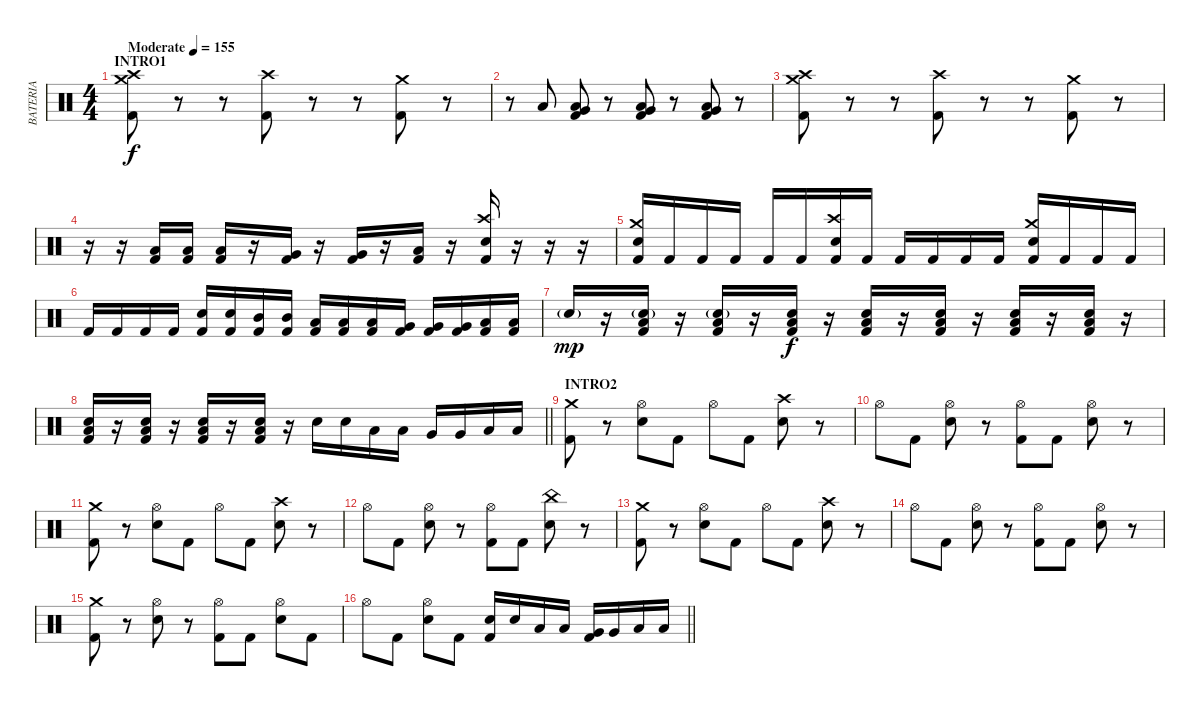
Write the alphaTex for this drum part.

\track ("BATERIA" "BATERIA") {instrument percussion}
\staff {score}
\articulation defaults
\ts (4 4)
\section ("" "INTRO1")
\tempo (155 "Moderate")
\clef neutral
\ks c
("Kick (hit) 2" "Crash medium (hit)" "Crash high (hit)").8{dy f} r.8 r.8 ("Kick (hit) 2" "Crash high (hit)").8 r.8 r.8 ("Kick (hit) 2" "Crash medium (hit)").8 r.8 |
r.8 "Low Floor Tom (hit)".8 ("Kick (hit) 2" "Low Floor Tom (hit)" "Very Low Tom (hit)").8 r.8 ("Kick (hit) 2" "Low Floor Tom (hit)" "Very Low Tom (hit)").8 r.8 ("Kick (hit) 2" "Low Floor Tom (hit)" "Very Low Tom (hit)").8 r.8 |
("Kick (hit) 2" "Crash medium (hit)" "Crash high (hit)").8 r.8 r.8 ("Kick (hit) 2" "Crash high (hit)").8 r.8 r.8 ("Kick (hit) 2" "Crash medium (hit)").8 r.8 |
r.16 r.16 ("Kick (hit) 2" "Low Tom (hit)").16 ("Kick (hit) 2" "Low Tom (hit)").16 ("Kick (hit) 2" "Low Tom (hit)").16 r.16 ("Kick (hit) 2" "Very Low Tom (hit)").16 r.16 ("Kick (hit) 2" "Very Low Tom (hit)").16 r.16 ("Kick (hit) 2" "Low Floor Tom (hit)").16 r.16 ("Kick (hit) 2" "Electric Snare (hit)" "Crash high (hit)").16 r.16 r.16 r.16 |
("Kick (hit) 2" "Electric Snare (hit)" "Crash medium (hit)").16 "Kick (hit) 2".16 "Kick (hit) 2".16 "Kick (hit) 2".16 "Kick (hit) 2".16 "Kick (hit) 2".16 ("Kick (hit) 2" "Electric Snare (hit)" "Crash high (hit)").16 "Kick (hit) 2".16 "Kick (hit) 2".16 "Kick (hit) 2".16 "Kick (hit) 2".16 "Kick (hit) 2".16 ("Kick (hit) 2" "Electric Snare (hit)" "Crash medium (hit)").16 "Kick (hit) 2".16 "Kick (hit) 2".16 "Kick (hit) 2".16 |
"Kick (hit) 2".16 "Kick (hit) 2".16 "Kick (hit) 2".16 "Kick (hit) 2".16 ("Kick (hit) 2" "Electric Snare (hit)").16 ("Kick (hit) 2" "Electric Snare (hit)").16 ("Kick (hit) 2" "Mid Tom (hit)").16 ("Kick (hit) 2" "Mid Tom (hit)").16 ("Kick (hit) 2" "Low Tom (hit)").16 ("Kick (hit) 2" "Low Tom (hit)").16 ("Kick (hit) 2" "Low Tom (hit)").16 ("Kick (hit) 2" "Very Low Tom (hit)").16 ("Kick (hit) 2" "Very Low Tom (hit)").16 ("Kick (hit) 2" "Very Low Tom (hit)").16 ("Kick (hit) 2" "Low Floor Tom (hit)").16 ("Kick (hit) 2" "Low Floor Tom (hit)").16 |
"Electric Snare (hit)"{g}.16{dy mp} r.16 ("Kick (hit) 2" "Electric Snare (hit)"{g} "Low Floor Tom (hit)").16 r.16 ("Kick (hit) 2" "Electric Snare (hit)"{g} "Low Floor Tom (hit)").16 r.16 ("Kick (hit) 2" "Electric Snare (hit)" "Low Floor Tom (hit)").16{dy f} r.16 ("Kick (hit) 2" "Electric Snare (hit)" "Low Floor Tom (hit)").16 r.16 ("Kick (hit) 2" "Electric Snare (hit)" "Low Floor Tom (hit)").16 r.16 ("Kick (hit) 2" "Electric Snare (hit)" "Low Floor Tom (hit)").16 r.16 ("Kick (hit) 2" "Electric Snare (hit)" "Low Floor Tom (hit)").16 r.16 |
\barLineRight lightlight
("Kick (hit) 2" "Electric Snare (hit)" "Low Floor Tom (hit)").16 r.16 ("Kick (hit) 2" "Electric Snare (hit)" "Low Floor Tom (hit)").16 r.16 ("Kick (hit) 2" "Electric Snare (hit)" "Low Floor Tom (hit)").16 r.16 ("Kick (hit) 2" "Electric Snare (hit)" "Low Floor Tom (hit)").16 r.16 "Electric Snare (hit)".16 "Electric Snare (hit)".16 "Low Tom (hit)".16 "Low Tom (hit)".16 "Very Low Tom (hit)".16 "Very Low Tom (hit)".16 "Low Floor Tom (hit)".16 "Low Floor Tom (hit)".16 |
\section ("" "INTRO2")
("Kick (hit) 2" "Crash medium (hit)").8 r.8 ("Hi-Hat (open)" "Electric Snare (hit)").8 "Kick (hit) 2".8 "Hi-Hat (open)".8 "Kick (hit) 2".8 ("Electric Snare (hit)" "Crash high (hit)").8 r.8 |
"Hi-Hat (open)".8 "Kick (hit) 2".8 ("Hi-Hat (open)" "Electric Snare (hit)").8 r.8 ("Kick (hit) 2" "Hi-Hat (open)").8 "Kick (hit) 2".8 ("Hi-Hat (open)" "Electric Snare (hit)").8 r.8 |
("Kick (hit) 2" "Crash medium (hit)").8 r.8 ("Hi-Hat (open)" "Electric Snare (hit)").8 "Kick (hit) 2".8 "Hi-Hat (open)".8 "Kick (hit) 2".8 ("Electric Snare (hit)" "Crash high (hit)").8 r.8 |
"Hi-Hat (open)".8 "Kick (hit) 2".8 ("Hi-Hat (open)" "Electric Snare (hit)").8 r.8 ("Kick (hit) 2" "Hi-Hat (open)").8 "Kick (hit) 2".8 ("Electric Snare (hit)" "China (hit)").8 r.8 |
("Kick (hit) 2" "Crash medium (hit)").8 r.8 ("Hi-Hat (open)" "Electric Snare (hit)").8 "Kick (hit) 2".8 "Hi-Hat (open)".8 "Kick (hit) 2".8 ("Electric Snare (hit)" "Crash high (hit)").8 r.8 |
"Hi-Hat (open)".8 "Kick (hit) 2".8 ("Hi-Hat (open)" "Electric Snare (hit)").8 r.8 ("Kick (hit) 2" "Hi-Hat (open)").8 "Kick (hit) 2".8 ("Hi-Hat (open)" "Electric Snare (hit)").8 r.8 |
("Kick (hit) 2" "Crash medium (hit)").8 r.8 ("Hi-Hat (open)" "Electric Snare (hit)").8 r.8 ("Kick (hit) 2" "Hi-Hat (open)").8 "Kick (hit) 2".8 ("Hi-Hat (open)" "Electric Snare (hit)").8 "Kick (hit) 2".8 |
\barLineRight lightlight "Hi-Hat (open)".8 "Kick (hit) 2".8
("Hi-Hat (open)" "Electric Snare (hit)").8 "Kick (hit) 2".8 ("Kick (hit) 2" "Electric Snare (hit)").16 "Electric Snare (hit)".16 "Low Tom (hit)".16 "Low Tom (hit)".16 ("Kick (hit) 2" "Very Low Tom (hit)").16 "Very Low Tom (hit)".16 "Low Floor Tom (hit)".16 "Low Floor Tom (hit)".16
